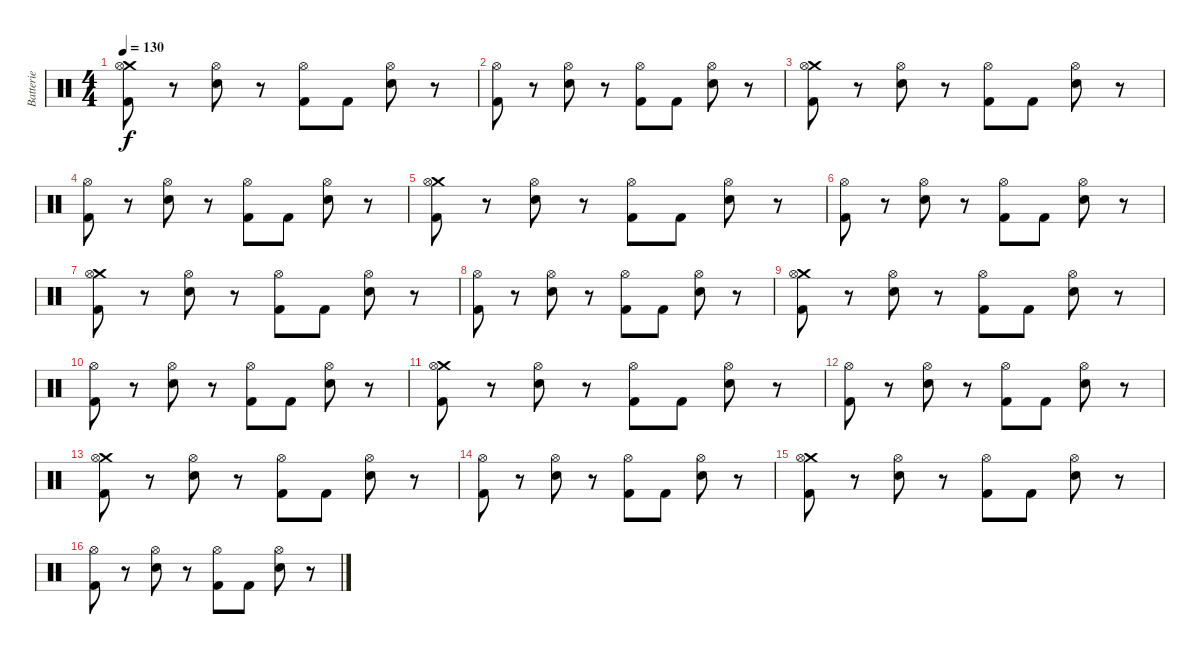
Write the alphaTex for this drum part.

\track ("Batterie" "Batterie") {instrument percussion}
\staff {score}
\articulation defaults
\ts (4 4)
\tempo 130
\clef neutral
\ks c
("Crash medium (hit)" "Hi-Hat (open)" "Kick (hit) 2").8{dy f} r.8 ("Hi-Hat (open)" "Electric Snare (hit)").8 r.8 ("Hi-Hat (open)" "Kick (hit) 2").8 "Kick (hit) 2".8 ("Hi-Hat (open)" "Electric Snare (hit)").8 r.8 |
("Hi-Hat (open)" "Kick (hit) 2").8 r.8 ("Hi-Hat (open)" "Electric Snare (hit)").8 r.8 ("Hi-Hat (open)" "Kick (hit) 2").8 "Kick (hit) 2".8 ("Hi-Hat (open)" "Electric Snare (hit)").8 r.8 |
("Crash medium (hit)" "Hi-Hat (open)" "Kick (hit) 2").8 r.8 ("Hi-Hat (open)" "Electric Snare (hit)").8 r.8 ("Hi-Hat (open)" "Kick (hit) 2").8 "Kick (hit) 2".8 ("Hi-Hat (open)" "Electric Snare (hit)").8 r.8 |
("Hi-Hat (open)" "Kick (hit) 2").8 r.8 ("Hi-Hat (open)" "Electric Snare (hit)").8 r.8 ("Hi-Hat (open)" "Kick (hit) 2").8 "Kick (hit) 2".8 ("Hi-Hat (open)" "Electric Snare (hit)").8 r.8 |
("Crash medium (hit)" "Hi-Hat (open)" "Kick (hit) 2").8 r.8 ("Hi-Hat (open)" "Electric Snare (hit)").8 r.8 ("Hi-Hat (open)" "Kick (hit) 2").8 "Kick (hit) 2".8 ("Hi-Hat (open)" "Electric Snare (hit)").8 r.8 |
("Hi-Hat (open)" "Kick (hit) 2").8 r.8 ("Hi-Hat (open)" "Electric Snare (hit)").8 r.8 ("Hi-Hat (open)" "Kick (hit) 2").8 "Kick (hit) 2".8 ("Hi-Hat (open)" "Electric Snare (hit)").8 r.8 |
("Crash medium (hit)" "Hi-Hat (open)" "Kick (hit) 2").8 r.8 ("Hi-Hat (open)" "Electric Snare (hit)").8 r.8 ("Hi-Hat (open)" "Kick (hit) 2").8 "Kick (hit) 2".8 ("Hi-Hat (open)" "Electric Snare (hit)").8 r.8 |
("Hi-Hat (open)" "Kick (hit) 2").8 r.8 ("Hi-Hat (open)" "Electric Snare (hit)").8 r.8 ("Hi-Hat (open)" "Kick (hit) 2").8 "Kick (hit) 2".8 ("Hi-Hat (open)" "Electric Snare (hit)").8 r.8 |
("Crash medium (hit)" "Hi-Hat (open)" "Kick (hit) 2").8 r.8 ("Hi-Hat (open)" "Electric Snare (hit)").8 r.8 ("Hi-Hat (open)" "Kick (hit) 2").8 "Kick (hit) 2".8 ("Hi-Hat (open)" "Electric Snare (hit)").8 r.8 |
("Hi-Hat (open)" "Kick (hit) 2").8 r.8 ("Hi-Hat (open)" "Electric Snare (hit)").8 r.8 ("Hi-Hat (open)" "Kick (hit) 2").8 "Kick (hit) 2".8 ("Hi-Hat (open)" "Electric Snare (hit)").8 r.8 |
("Crash medium (hit)" "Hi-Hat (open)" "Kick (hit) 2").8 r.8 ("Hi-Hat (open)" "Electric Snare (hit)").8 r.8 ("Hi-Hat (open)" "Kick (hit) 2").8 "Kick (hit) 2".8 ("Hi-Hat (open)" "Electric Snare (hit)").8 r.8 |
("Hi-Hat (open)" "Kick (hit) 2").8 r.8 ("Hi-Hat (open)" "Electric Snare (hit)").8 r.8 ("Hi-Hat (open)" "Kick (hit) 2").8 "Kick (hit) 2".8 ("Hi-Hat (open)" "Electric Snare (hit)").8 r.8 |
("Crash medium (hit)" "Hi-Hat (open)" "Kick (hit) 2").8 r.8 ("Hi-Hat (open)" "Electric Snare (hit)").8 r.8 ("Hi-Hat (open)" "Kick (hit) 2").8 "Kick (hit) 2".8 ("Hi-Hat (open)" "Electric Snare (hit)").8 r.8 |
("Hi-Hat (open)" "Kick (hit) 2").8 r.8 ("Hi-Hat (open)" "Electric Snare (hit)").8 r.8 ("Hi-Hat (open)" "Kick (hit) 2").8 "Kick (hit) 2".8 ("Hi-Hat (open)" "Electric Snare (hit)").8 r.8 |
("Crash medium (hit)" "Hi-Hat (open)" "Kick (hit) 2").8 r.8 ("Hi-Hat (open)" "Electric Snare (hit)").8 r.8 ("Hi-Hat (open)" "Kick (hit) 2").8 "Kick (hit) 2".8 ("Hi-Hat (open)" "Electric Snare (hit)").8 r.8 |
("Hi-Hat (open)" "Kick (hit) 2").8 r.8 ("Hi-Hat (open)" "Electric Snare (hit)").8 r.8 ("Hi-Hat (open)" "Kick (hit) 2").8 "Kick (hit) 2".8 ("Hi-Hat (open)" "Electric Snare (hit)").8 r.8
